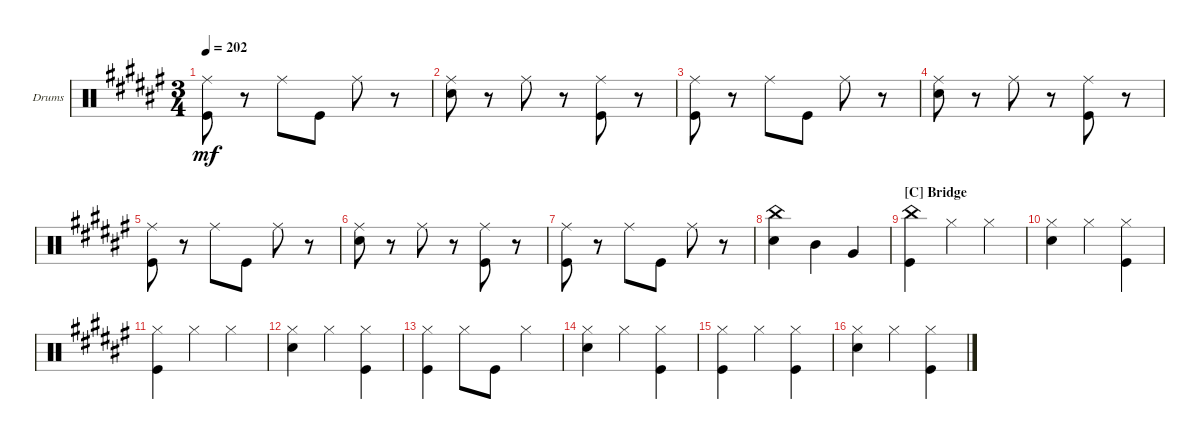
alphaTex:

\defaultSystemsLayout 4
\bracketExtendMode groupsimilarinstruments
\firstSystemTrackNameOrientation horizontal
\otherSystemsTrackNameOrientation horizontal
\track ("Drumkit" "Drums") {instrument percussion}
\staff {score}
\articulation defaults
\ts (3 4)
\tempo 202
\clef neutral
\ks f#
("Kick (hit)" "Ride (middle)").8{dy mf} r.8 "Ride (middle)".8 "Kick (hit)".8 "Ride (middle)".8 r.8 |
("Snare (hit) 2" "Ride (middle)").8 r.8 "Ride (middle)".8 r.8 ("Kick (hit)" "Ride (middle)").8 r.8 |
("Kick (hit)" "Ride (middle)").8 r.8 "Ride (middle)".8 "Kick (hit)".8 "Ride (middle)".8 r.8 |
("Snare (hit) 2" "Ride (middle)").8 r.8 "Ride (middle)".8 r.8 ("Kick (hit)" "Ride (middle)").8 r.8 |
("Kick (hit)" "Ride (middle)").8 r.8 "Ride (middle)".8 "Kick (hit)".8 "Ride (middle)".8 r.8 |
("Snare (hit) 2" "Ride (middle)").8 r.8 "Ride (middle)".8 r.8 ("Kick (hit)" "Ride (middle)").8 r.8 |
("Kick (hit)" "Ride (middle)").8 r.8 "Ride (middle)".8 "Kick (hit)".8 "Ride (middle)".8 r.8 |
("Snare (hit) 2" "China (hit)").4 "Mid Tom (hit)".4 "Very Low Tom (hit)".4 |
\section ("C" "Bridge")
("China (hit)" "Kick (hit)").4 "Hi-Hat (closed)".4 "Hi-Hat (closed)".4 |
("Snare (hit) 2" "Hi-Hat (closed)").4 "Hi-Hat (closed)".4 ("Hi-Hat (closed)" "Kick (hit)").4 |
("Kick (hit)" "Hi-Hat (closed)").4 "Hi-Hat (closed)".4 "Hi-Hat (closed)".4 |
("Snare (hit) 2" "Hi-Hat (closed)").4 "Hi-Hat (closed)".4 ("Hi-Hat (closed)" "Kick (hit)").4 |
("Kick (hit)" "Hi-Hat (closed)").4 "Hi-Hat (closed)".8 "Kick (hit)".8 "Hi-Hat (closed)".4 |
("Hi-Hat (closed)" "Snare (hit) 2").4 "Hi-Hat (closed)".4 ("Hi-Hat (closed)" "Kick (hit)").4 |
("Kick (hit)" "Hi-Hat (closed)").4 "Hi-Hat (closed)".4 ("Hi-Hat (closed)" "Kick (hit)").4 |
("Snare (hit) 2" "Hi-Hat (closed)").4 "Hi-Hat (closed)".4 ("Hi-Hat (closed)" "Kick (hit)").4
